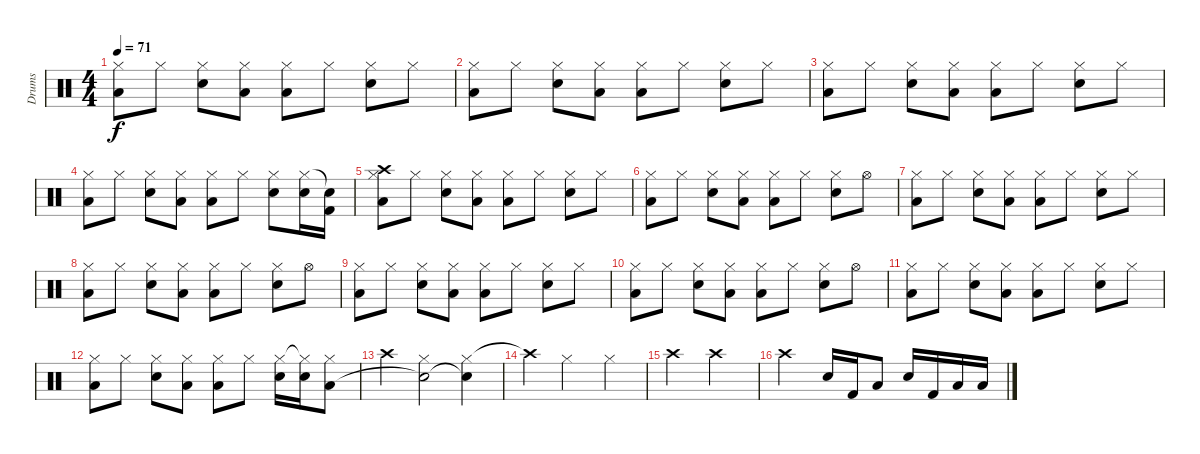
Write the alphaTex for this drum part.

\track ("Drums" "Drums") {instrument percussion}
\staff {score}
\articulation defaults
\ts (4 4)
\tempo 71
\clef neutral
\ks c
("Hi-Hat (closed)" "Low Tom (hit)").8{dy f} "Hi-Hat (closed)".8 ("Hi-Hat (closed)" "Snare (hit) 2").8 ("Hi-Hat (closed)" "Low Tom (hit)").8 ("Hi-Hat (closed)" "Low Tom (hit)").8 "Hi-Hat (closed)".8 ("Hi-Hat (closed)" "Snare (hit) 2").8 "Hi-Hat (closed)".8 |
("Hi-Hat (closed)" "Low Tom (hit)").8 "Hi-Hat (closed)".8 ("Hi-Hat (closed)" "Snare (hit) 2").8 ("Hi-Hat (closed)" "Low Tom (hit)").8 ("Hi-Hat (closed)" "Low Tom (hit)").8 "Hi-Hat (closed)".8 ("Hi-Hat (closed)" "Snare (hit) 2").8 "Hi-Hat (closed)".8 |
("Hi-Hat (closed)" "Low Tom (hit)").8 "Hi-Hat (closed)".8 ("Hi-Hat (closed)" "Snare (hit) 2").8 ("Hi-Hat (closed)" "Low Tom (hit)").8 ("Hi-Hat (closed)" "Low Tom (hit)").8 "Hi-Hat (closed)".8 ("Hi-Hat (closed)" "Snare (hit) 2").8 "Hi-Hat (closed)".8 |
("Hi-Hat (closed)" "Low Tom (hit)").8 "Hi-Hat (closed)".8 ("Hi-Hat (closed)" "Snare (hit) 2").8 ("Hi-Hat (closed)" "Low Tom (hit)").8 ("Hi-Hat (closed)" "Low Tom (hit)").8 "Hi-Hat (closed)".8 ("Hi-Hat (closed)" "Snare (hit) 2").8 ("Hi-Hat (closed)" "Snare (hit) 2").16 ("Snare (hit)"{t} "Kick (hit) 2").16 |
("Hi-Hat (closed)" "Low Tom (hit)" "Crash high (hit)").8 "Hi-Hat (closed)".8 ("Hi-Hat (closed)" "Snare (hit) 2").8 ("Hi-Hat (closed)" "Low Tom (hit)").8 ("Hi-Hat (closed)" "Low Tom (hit)").8 "Hi-Hat (closed)".8 ("Hi-Hat (closed)" "Snare (hit) 2").8 "Hi-Hat (closed)".8 |
("Hi-Hat (closed)" "Low Tom (hit)").8 "Hi-Hat (closed)".8 ("Hi-Hat (closed)" "Snare (hit) 2").8 ("Hi-Hat (closed)" "Low Tom (hit)").8 ("Hi-Hat (closed)" "Low Tom (hit)").8 "Hi-Hat (closed)".8 ("Hi-Hat (closed)" "Snare (hit) 2").8 "Hi-Hat (open)".8 |
("Hi-Hat (closed)" "Low Tom (hit)").8 "Hi-Hat (closed)".8 ("Hi-Hat (closed)" "Snare (hit) 2").8 ("Hi-Hat (closed)" "Low Tom (hit)").8 ("Hi-Hat (closed)" "Low Tom (hit)").8 "Hi-Hat (closed)".8 ("Hi-Hat (closed)" "Snare (hit) 2").8 "Hi-Hat (closed)".8 |
("Hi-Hat (closed)" "Low Tom (hit)").8 "Hi-Hat (closed)".8 ("Hi-Hat (closed)" "Snare (hit) 2").8 ("Hi-Hat (closed)" "Low Tom (hit)").8 ("Hi-Hat (closed)" "Low Tom (hit)").8 "Hi-Hat (closed)".8 ("Hi-Hat (closed)" "Snare (hit) 2").8 "Hi-Hat (open)".8 |
("Hi-Hat (closed)" "Low Tom (hit)").8 "Hi-Hat (closed)".8 ("Hi-Hat (closed)" "Snare (hit) 2").8 ("Hi-Hat (closed)" "Low Tom (hit)").8 ("Hi-Hat (closed)" "Low Tom (hit)").8 "Hi-Hat (closed)".8 ("Hi-Hat (closed)" "Snare (hit) 2").8 "Hi-Hat (closed)".8 |
("Hi-Hat (closed)" "Low Tom (hit)").8 "Hi-Hat (closed)".8 ("Hi-Hat (closed)" "Snare (hit) 2").8 ("Hi-Hat (closed)" "Low Tom (hit)").8 ("Hi-Hat (closed)" "Low Tom (hit)").8 "Hi-Hat (closed)".8 ("Hi-Hat (closed)" "Snare (hit) 2").8 "Hi-Hat (open)".8 |
("Hi-Hat (closed)" "Low Tom (hit)").8 "Hi-Hat (closed)".8 ("Hi-Hat (closed)" "Snare (hit) 2").8 ("Hi-Hat (closed)" "Low Tom (hit)").8 ("Hi-Hat (closed)" "Low Tom (hit)").8 "Hi-Hat (closed)".8 ("Hi-Hat (closed)" "Snare (hit) 2").8 "Hi-Hat (closed)".8 |
("Hi-Hat (closed)" "Low Tom (hit)").8 "Hi-Hat (closed)".8 ("Hi-Hat (closed)" "Snare (hit) 2").8 ("Hi-Hat (closed)" "Low Tom (hit)").8 ("Hi-Hat (closed)" "Low Tom (hit)").8 "Hi-Hat (closed)".8 ("Hi-Hat (closed)" "Snare (hit) 2").16 ("Hi-Hat (closed)"{t} "Snare (hit) 2").16 ("Hi-Hat (closed)" "Low Tom (hit)").8 |
"Crash high (hit)".4 ("Hi-Hat (closed)" "Snare (hit)"{t}).2 ("Hi-Hat (closed)" "Snare (hit)"{t}).4 |
"Crash high (hit)"{t}.4 "Hi-Hat (closed)".2 "Hi-Hat (closed)".4 |
"Crash high (hit)".2 "Crash high (hit)".2 |
"Crash high (hit)".2 "Snare (hit) 2".16 "Kick (hit) 2".16 "Low Tom (hit)".8 "Snare (hit) 2".16 "Kick (hit) 2".16 "Low Tom (hit)".16 "Low Tom (hit)".16
